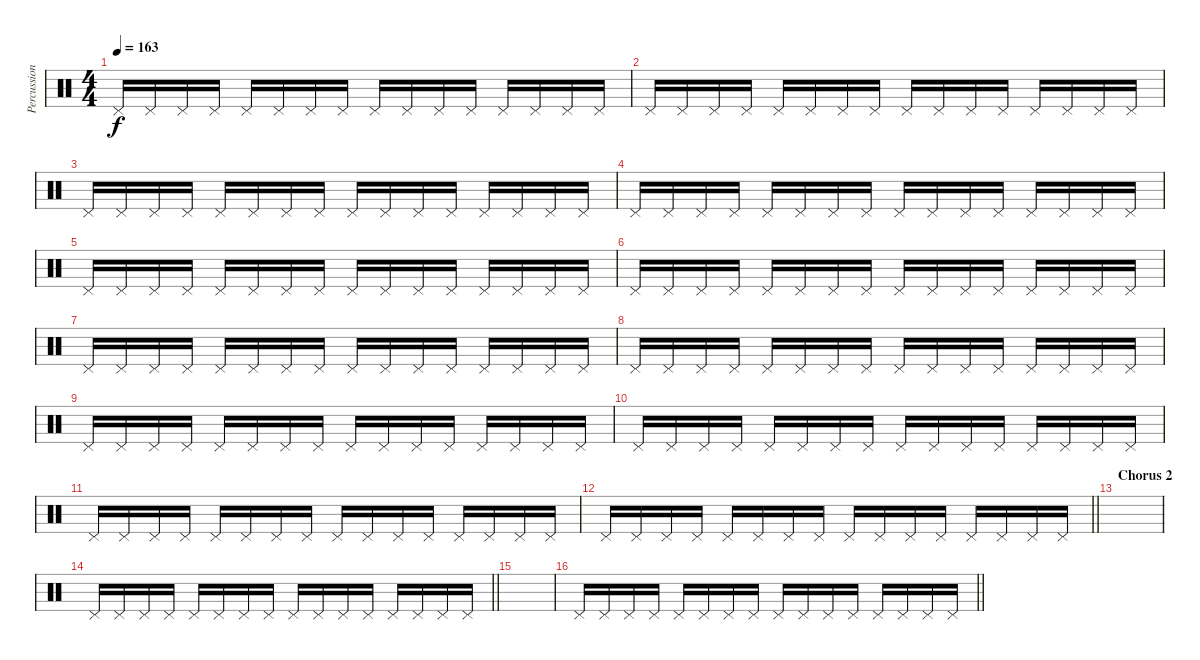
\track ("Percussion" "Percussion") {instrument percussion}
\staff {score}
\articulation defaults
\ts (4 4)
\tempo 163
\clef neutral
\ks c "Pedal Hi-Hat (hit)".16{dy f} "Pedal Hi-Hat (hit)".16 "Pedal Hi-Hat (hit)".16 "Pedal Hi-Hat (hit)".16 "Pedal Hi-Hat (hit)".16 "Pedal Hi-Hat (hit)".16 "Pedal Hi-Hat (hit)".16 "Pedal Hi-Hat (hit)".16 "Pedal Hi-Hat (hit)".16 "Pedal Hi-Hat (hit)".16 "Pedal Hi-Hat (hit)".16 "Pedal Hi-Hat (hit)".16 "Pedal Hi-Hat (hit)".16 "Pedal Hi-Hat (hit)".16 "Pedal Hi-Hat (hit)".16 "Pedal Hi-Hat (hit)".16
|
"Pedal Hi-Hat (hit)".16 "Pedal Hi-Hat (hit)".16 "Pedal Hi-Hat (hit)".16 "Pedal Hi-Hat (hit)".16 "Pedal Hi-Hat (hit)".16 "Pedal Hi-Hat (hit)".16 "Pedal Hi-Hat (hit)".16 "Pedal Hi-Hat (hit)".16 "Pedal Hi-Hat (hit)".16 "Pedal Hi-Hat (hit)".16 "Pedal Hi-Hat (hit)".16 "Pedal Hi-Hat (hit)".16 "Pedal Hi-Hat (hit)".16 "Pedal Hi-Hat (hit)".16 "Pedal Hi-Hat (hit)".16 "Pedal Hi-Hat (hit)".16 |
"Pedal Hi-Hat (hit)".16 "Pedal Hi-Hat (hit)".16 "Pedal Hi-Hat (hit)".16 "Pedal Hi-Hat (hit)".16 "Pedal Hi-Hat (hit)".16 "Pedal Hi-Hat (hit)".16 "Pedal Hi-Hat (hit)".16 "Pedal Hi-Hat (hit)".16 "Pedal Hi-Hat (hit)".16 "Pedal Hi-Hat (hit)".16 "Pedal Hi-Hat (hit)".16 "Pedal Hi-Hat (hit)".16 "Pedal Hi-Hat (hit)".16 "Pedal Hi-Hat (hit)".16 "Pedal Hi-Hat (hit)".16 "Pedal Hi-Hat (hit)".16 |
"Pedal Hi-Hat (hit)".16 "Pedal Hi-Hat (hit)".16 "Pedal Hi-Hat (hit)".16 "Pedal Hi-Hat (hit)".16 "Pedal Hi-Hat (hit)".16 "Pedal Hi-Hat (hit)".16 "Pedal Hi-Hat (hit)".16 "Pedal Hi-Hat (hit)".16 "Pedal Hi-Hat (hit)".16 "Pedal Hi-Hat (hit)".16 "Pedal Hi-Hat (hit)".16 "Pedal Hi-Hat (hit)".16 "Pedal Hi-Hat (hit)".16 "Pedal Hi-Hat (hit)".16 "Pedal Hi-Hat (hit)".16 "Pedal Hi-Hat (hit)".16 |
"Pedal Hi-Hat (hit)".16 "Pedal Hi-Hat (hit)".16 "Pedal Hi-Hat (hit)".16 "Pedal Hi-Hat (hit)".16 "Pedal Hi-Hat (hit)".16 "Pedal Hi-Hat (hit)".16 "Pedal Hi-Hat (hit)".16 "Pedal Hi-Hat (hit)".16 "Pedal Hi-Hat (hit)".16 "Pedal Hi-Hat (hit)".16 "Pedal Hi-Hat (hit)".16 "Pedal Hi-Hat (hit)".16 "Pedal Hi-Hat (hit)".16 "Pedal Hi-Hat (hit)".16 "Pedal Hi-Hat (hit)".16 "Pedal Hi-Hat (hit)".16 |
"Pedal Hi-Hat (hit)".16 "Pedal Hi-Hat (hit)".16 "Pedal Hi-Hat (hit)".16 "Pedal Hi-Hat (hit)".16 "Pedal Hi-Hat (hit)".16 "Pedal Hi-Hat (hit)".16 "Pedal Hi-Hat (hit)".16 "Pedal Hi-Hat (hit)".16 "Pedal Hi-Hat (hit)".16 "Pedal Hi-Hat (hit)".16 "Pedal Hi-Hat (hit)".16 "Pedal Hi-Hat (hit)".16 "Pedal Hi-Hat (hit)".16 "Pedal Hi-Hat (hit)".16 "Pedal Hi-Hat (hit)".16 "Pedal Hi-Hat (hit)".16 |
"Pedal Hi-Hat (hit)".16 "Pedal Hi-Hat (hit)".16 "Pedal Hi-Hat (hit)".16 "Pedal Hi-Hat (hit)".16 "Pedal Hi-Hat (hit)".16 "Pedal Hi-Hat (hit)".16 "Pedal Hi-Hat (hit)".16 "Pedal Hi-Hat (hit)".16 "Pedal Hi-Hat (hit)".16 "Pedal Hi-Hat (hit)".16 "Pedal Hi-Hat (hit)".16 "Pedal Hi-Hat (hit)".16 "Pedal Hi-Hat (hit)".16 "Pedal Hi-Hat (hit)".16 "Pedal Hi-Hat (hit)".16 "Pedal Hi-Hat (hit)".16 |
"Pedal Hi-Hat (hit)".16 "Pedal Hi-Hat (hit)".16 "Pedal Hi-Hat (hit)".16 "Pedal Hi-Hat (hit)".16 "Pedal Hi-Hat (hit)".16 "Pedal Hi-Hat (hit)".16 "Pedal Hi-Hat (hit)".16 "Pedal Hi-Hat (hit)".16 "Pedal Hi-Hat (hit)".16 "Pedal Hi-Hat (hit)".16 "Pedal Hi-Hat (hit)".16 "Pedal Hi-Hat (hit)".16 "Pedal Hi-Hat (hit)".16 "Pedal Hi-Hat (hit)".16 "Pedal Hi-Hat (hit)".16 "Pedal Hi-Hat (hit)".16 |
"Pedal Hi-Hat (hit)".16 "Pedal Hi-Hat (hit)".16 "Pedal Hi-Hat (hit)".16 "Pedal Hi-Hat (hit)".16 "Pedal Hi-Hat (hit)".16 "Pedal Hi-Hat (hit)".16 "Pedal Hi-Hat (hit)".16 "Pedal Hi-Hat (hit)".16 "Pedal Hi-Hat (hit)".16 "Pedal Hi-Hat (hit)".16 "Pedal Hi-Hat (hit)".16 "Pedal Hi-Hat (hit)".16 "Pedal Hi-Hat (hit)".16 "Pedal Hi-Hat (hit)".16 "Pedal Hi-Hat (hit)".16 "Pedal Hi-Hat (hit)".16 |
"Pedal Hi-Hat (hit)".16 "Pedal Hi-Hat (hit)".16 "Pedal Hi-Hat (hit)".16 "Pedal Hi-Hat (hit)".16 "Pedal Hi-Hat (hit)".16 "Pedal Hi-Hat (hit)".16 "Pedal Hi-Hat (hit)".16 "Pedal Hi-Hat (hit)".16 "Pedal Hi-Hat (hit)".16 "Pedal Hi-Hat (hit)".16 "Pedal Hi-Hat (hit)".16 "Pedal Hi-Hat (hit)".16 "Pedal Hi-Hat (hit)".16 "Pedal Hi-Hat (hit)".16 "Pedal Hi-Hat (hit)".16 "Pedal Hi-Hat (hit)".16 |
"Pedal Hi-Hat (hit)".16 "Pedal Hi-Hat (hit)".16 "Pedal Hi-Hat (hit)".16 "Pedal Hi-Hat (hit)".16 "Pedal Hi-Hat (hit)".16 "Pedal Hi-Hat (hit)".16 "Pedal Hi-Hat (hit)".16 "Pedal Hi-Hat (hit)".16 "Pedal Hi-Hat (hit)".16 "Pedal Hi-Hat (hit)".16 "Pedal Hi-Hat (hit)".16 "Pedal Hi-Hat (hit)".16 "Pedal Hi-Hat (hit)".16 "Pedal Hi-Hat (hit)".16 "Pedal Hi-Hat (hit)".16 "Pedal Hi-Hat (hit)".16 |
\barLineRight lightlight "Pedal Hi-Hat (hit)".16 "Pedal Hi-Hat (hit)".16 "Pedal Hi-Hat (hit)".16 "Pedal Hi-Hat (hit)".16 "Pedal Hi-Hat (hit)".16 "Pedal Hi-Hat (hit)".16 "Pedal Hi-Hat (hit)".16 "Pedal Hi-Hat (hit)".16 "Pedal Hi-Hat (hit)".16 "Pedal Hi-Hat (hit)".16 "Pedal Hi-Hat (hit)".16 "Pedal Hi-Hat (hit)".16 "Pedal Hi-Hat (hit)".16 "Pedal Hi-Hat (hit)".16 "Pedal Hi-Hat (hit)".16 "Pedal Hi-Hat (hit)".16
|
\section ("" "Chorus 2")
|
\barLineRight lightlight "Pedal Hi-Hat (hit)".16 "Pedal Hi-Hat (hit)".16 "Pedal Hi-Hat (hit)".16 "Pedal Hi-Hat (hit)".16 "Pedal Hi-Hat (hit)".16 "Pedal Hi-Hat (hit)".16 "Pedal Hi-Hat (hit)".16 "Pedal Hi-Hat (hit)".16 "Pedal Hi-Hat (hit)".16 "Pedal Hi-Hat (hit)".16 "Pedal Hi-Hat (hit)".16 "Pedal Hi-Hat (hit)".16 "Pedal Hi-Hat (hit)".16 "Pedal Hi-Hat (hit)".16 "Pedal Hi-Hat (hit)".16 "Pedal Hi-Hat (hit)".16
|
|
\barLineRight lightlight "Pedal Hi-Hat (hit)".16 "Pedal Hi-Hat (hit)".16 "Pedal Hi-Hat (hit)".16 "Pedal Hi-Hat (hit)".16 "Pedal Hi-Hat (hit)".16 "Pedal Hi-Hat (hit)".16 "Pedal Hi-Hat (hit)".16 "Pedal Hi-Hat (hit)".16 "Pedal Hi-Hat (hit)".16 "Pedal Hi-Hat (hit)".16 "Pedal Hi-Hat (hit)".16 "Pedal Hi-Hat (hit)".16 "Pedal Hi-Hat (hit)".16 "Pedal Hi-Hat (hit)".16 "Pedal Hi-Hat (hit)".16 "Pedal Hi-Hat (hit)".16
